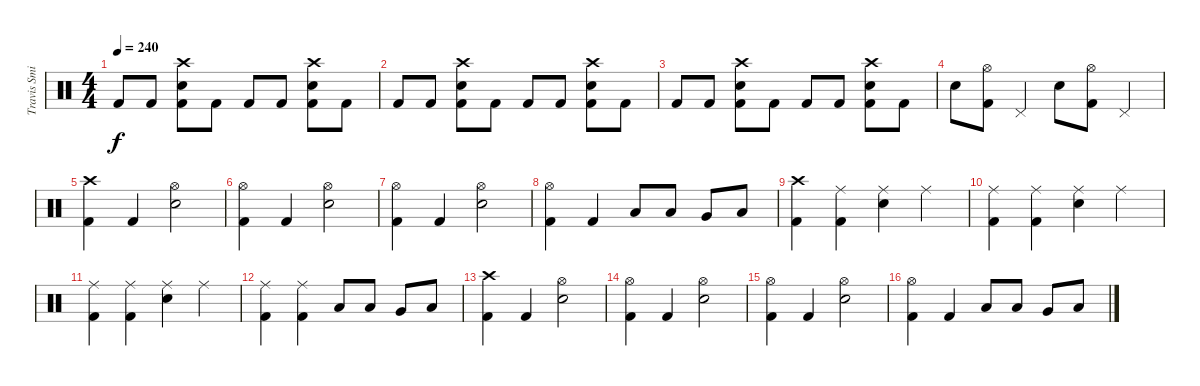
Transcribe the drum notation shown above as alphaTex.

\track ("Travis Smith (Drums)" "Travis Smi") {instrument percussion}
\staff {score}
\articulation defaults
\ts (4 4)
\tempo 240
\clef neutral
\ks c "Kick (hit) 2".8{dy f} "Kick (hit) 2".8
("Kick (hit) 2" "Snare (hit) 2" "Crash high (hit)").8 "Kick (hit) 2".8 "Kick (hit) 2".8 "Kick (hit) 2".8 ("Kick (hit) 2" "Snare (hit) 2" "Crash high (hit)").8 "Kick (hit) 2".8 |
"Kick (hit) 2".8 "Kick (hit) 2".8 ("Kick (hit) 2" "Snare (hit) 2" "Crash high (hit)").8 "Kick (hit) 2".8 "Kick (hit) 2".8 "Kick (hit) 2".8 ("Kick (hit) 2" "Snare (hit) 2" "Crash high (hit)").8 "Kick (hit) 2".8 |
"Kick (hit) 2".8 "Kick (hit) 2".8 ("Kick (hit) 2" "Snare (hit) 2" "Crash high (hit)").8 "Kick (hit) 2".8 "Kick (hit) 2".8 "Kick (hit) 2".8 ("Kick (hit) 2" "Snare (hit) 2" "Crash high (hit)").8 "Kick (hit) 2".8 |
"Snare (hit) 2".8 ("Kick (hit) 2" "Hi-Hat (open)").8 "Pedal Hi-Hat (hit)".4 "Snare (hit) 2".8 ("Kick (hit) 2" "Hi-Hat (open)").8 "Pedal Hi-Hat (hit)".4 |
("Kick (hit) 2" "Crash high (hit)").4 "Kick (hit) 2".4 ("Snare (hit) 2" "Hi-Hat (open)").2 |
("Kick (hit) 2" "Hi-Hat (open)").4 "Kick (hit) 2".4 ("Snare (hit) 2" "Hi-Hat (open)").2 |
("Kick (hit) 2" "Hi-Hat (open)").4 "Kick (hit) 2".4 ("Snare (hit) 2" "Hi-Hat (open)").2 |
("Kick (hit) 2" "Hi-Hat (open)").4 "Kick (hit) 2".4 "Low Tom (hit)".8 "Low Tom (hit)".8 "Very Low Tom (hit)".8 "Low Floor Tom (hit)".8 |
("Kick (hit) 2" "Crash high (hit)").4 ("Kick (hit) 2" "Ride (middle)").4 ("Snare (hit) 2" "Ride (middle)").4 "Ride (middle)".4 |
("Kick (hit) 2" "Ride (middle)").4 ("Kick (hit) 2" "Ride (middle)").4 ("Snare (hit) 2" "Ride (middle)").4 "Ride (middle)".4 |
("Kick (hit) 2" "Ride (middle)").4 ("Kick (hit) 2" "Ride (middle)").4 ("Snare (hit) 2" "Ride (middle)").4 "Ride (middle)".4 |
("Kick (hit) 2" "Ride (middle)").4 ("Kick (hit) 2" "Ride (middle)").4 "Low Tom (hit)".8 "Low Tom (hit)".8 "Very Low Tom (hit)".8 "Low Floor Tom (hit)".8 |
("Kick (hit) 2" "Crash high (hit)").4 "Kick (hit) 2".4 ("Snare (hit) 2" "Hi-Hat (open)").2 |
("Kick (hit) 2" "Hi-Hat (open)").4 "Kick (hit) 2".4 ("Snare (hit) 2" "Hi-Hat (open)").2 |
("Kick (hit) 2" "Hi-Hat (open)").4 "Kick (hit) 2".4 ("Snare (hit) 2" "Hi-Hat (open)").2 |
("Kick (hit) 2" "Hi-Hat (open)").4 "Kick (hit) 2".4 "Low Tom (hit)".8 "Low Tom (hit)".8 "Very Low Tom (hit)".8 "Low Floor Tom (hit)".8
